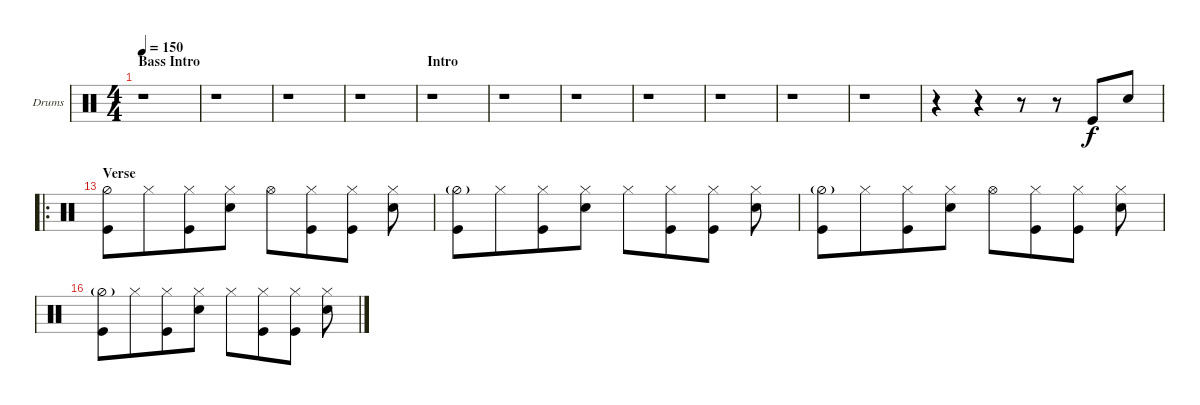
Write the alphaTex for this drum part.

\defaultSystemsLayout 4
\bracketExtendMode nobrackets
\firstSystemTrackNameOrientation horizontal
\otherSystemsTrackNameOrientation horizontal
\defaultBarNumberDisplay FirstOfSystem
\track ("Drum" "Drums") {instrument percussion}
\staff {score}
\articulation defaults
\ts (4 4)
\section ("" "Bass Intro")
\tempo 150
\clef neutral
\scale
0.371841
\ks c
r.1{dy f} |
\scale
0.209386 r.1 |
\scale
0.209386 r.1 |
\scale
0.209386 r.1 |
\section ("" "Intro")
\scale
0.25 r.1 |
\scale
0.25 r.1 |
\scale
0.25 r.1 |
\scale
0.25 r.1 |
\scale
0.190789 r.1 |
\scale
0.190789 r.1 |
\scale
0.190789 r.1 |
\scale
0.427632 r.4 r.4 r.8 r.8 "Kick (hit)".8 "Snare (hit) 2".8 |
\ro
\section ("" "Verse")
\scale
0.264706 ("Hi-Hat (half)" "Kick (hit)").8 "Hi-Hat (closed)".8{beam merge} ("Kick (hit)" "Hi-Hat (closed)").8 ("Snare (hit) 2" "Hi-Hat (closed)").8 "Hi-Hat (open)".8 ("Hi-Hat (closed)" "Kick (hit)").8{beam merge} ("Kick (hit)" "Hi-Hat (closed)").8{beam split} ("Snare (hit) 2" "Hi-Hat (closed)").8 |
\scale
0.245098 ("Hi-Hat (half)"{g} "Kick (hit)").8 "Hi-Hat (closed)".8{beam merge} ("Kick (hit)" "Hi-Hat (closed)").8 ("Snare (hit) 2" "Hi-Hat (closed)").8 "Hi-Hat (closed)".8 ("Hi-Hat (closed)" "Kick (hit)").8{beam merge} ("Kick (hit)" "Hi-Hat (closed)").8{beam split} ("Snare (hit) 2" "Hi-Hat (closed)").8 |
\scale
0.245098 ("Hi-Hat (half)"{g} "Kick (hit)").8 "Hi-Hat (closed)".8{beam merge} ("Kick (hit)" "Hi-Hat (closed)").8 ("Snare (hit) 2" "Hi-Hat (closed)").8 "Hi-Hat (open)".8 ("Kick (hit)" "Hi-Hat (closed)").8{beam merge} ("Kick (hit)" "Hi-Hat (closed)").8{beam split} ("Snare (hit) 2" "Hi-Hat (closed)").8 |
\scale
0.245098 ("Kick (hit)" "Hi-Hat (half)"{g}).8 "Hi-Hat (closed)".8{beam merge} ("Kick (hit)" "Hi-Hat (closed)").8 ("Snare (hit) 2" "Hi-Hat (closed)").8 "Hi-Hat (closed)".8 ("Kick (hit)" "Hi-Hat (closed)").8{beam merge} ("Kick (hit)" "Hi-Hat (closed)").8{beam split} ("Snare (hit) 2" "Hi-Hat (closed)").8
